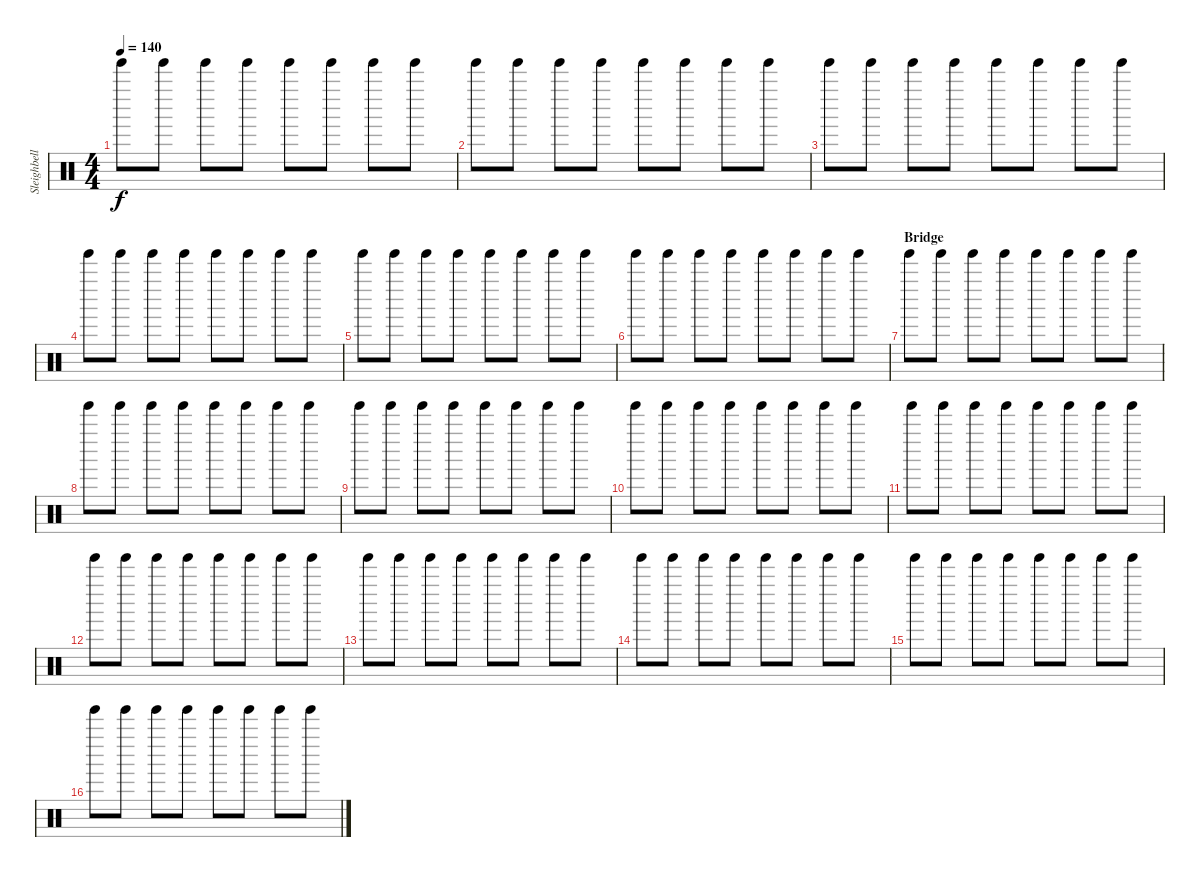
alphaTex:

\track ("Sleighbells" "Sleighbell") {instrument percussion}
\staff {score}
\articulation defaults
\ts (4 4)
\tempo 140
\clef neutral
\ks c "Tinkle Bell (hit)".8{dy f} "Tinkle Bell (hit)".8 "Tinkle Bell (hit)".8 "Tinkle Bell (hit)".8 "Tinkle Bell (hit)".8 "Tinkle Bell (hit)".8 "Tinkle Bell (hit)".8 "Tinkle Bell (hit)".8
|
"Tinkle Bell (hit)".8 "Tinkle Bell (hit)".8 "Tinkle Bell (hit)".8 "Tinkle Bell (hit)".8 "Tinkle Bell (hit)".8 "Tinkle Bell (hit)".8 "Tinkle Bell (hit)".8 "Tinkle Bell (hit)".8 |
"Tinkle Bell (hit)".8 "Tinkle Bell (hit)".8 "Tinkle Bell (hit)".8 "Tinkle Bell (hit)".8 "Tinkle Bell (hit)".8 "Tinkle Bell (hit)".8 "Tinkle Bell (hit)".8 "Tinkle Bell (hit)".8 |
"Tinkle Bell (hit)".8 "Tinkle Bell (hit)".8 "Tinkle Bell (hit)".8 "Tinkle Bell (hit)".8 "Tinkle Bell (hit)".8 "Tinkle Bell (hit)".8 "Tinkle Bell (hit)".8 "Tinkle Bell (hit)".8 |
"Tinkle Bell (hit)".8 "Tinkle Bell (hit)".8 "Tinkle Bell (hit)".8 "Tinkle Bell (hit)".8 "Tinkle Bell (hit)".8 "Tinkle Bell (hit)".8 "Tinkle Bell (hit)".8 "Tinkle Bell (hit)".8 |
"Tinkle Bell (hit)".8 "Tinkle Bell (hit)".8 "Tinkle Bell (hit)".8 "Tinkle Bell (hit)".8 "Tinkle Bell (hit)".8 "Tinkle Bell (hit)".8 "Tinkle Bell (hit)".8 "Tinkle Bell (hit)".8 |
\section ("" "Bridge")
"Tinkle Bell (hit)".8 "Tinkle Bell (hit)".8 "Tinkle Bell (hit)".8 "Tinkle Bell (hit)".8 "Tinkle Bell (hit)".8 "Tinkle Bell (hit)".8 "Tinkle Bell (hit)".8 "Tinkle Bell (hit)".8 |
"Tinkle Bell (hit)".8 "Tinkle Bell (hit)".8 "Tinkle Bell (hit)".8 "Tinkle Bell (hit)".8 "Tinkle Bell (hit)".8 "Tinkle Bell (hit)".8 "Tinkle Bell (hit)".8 "Tinkle Bell (hit)".8 |
"Tinkle Bell (hit)".8 "Tinkle Bell (hit)".8 "Tinkle Bell (hit)".8 "Tinkle Bell (hit)".8 "Tinkle Bell (hit)".8 "Tinkle Bell (hit)".8 "Tinkle Bell (hit)".8 "Tinkle Bell (hit)".8 |
"Tinkle Bell (hit)".8 "Tinkle Bell (hit)".8 "Tinkle Bell (hit)".8 "Tinkle Bell (hit)".8 "Tinkle Bell (hit)".8 "Tinkle Bell (hit)".8 "Tinkle Bell (hit)".8 "Tinkle Bell (hit)".8 |
"Tinkle Bell (hit)".8 "Tinkle Bell (hit)".8 "Tinkle Bell (hit)".8 "Tinkle Bell (hit)".8 "Tinkle Bell (hit)".8 "Tinkle Bell (hit)".8 "Tinkle Bell (hit)".8 "Tinkle Bell (hit)".8 |
"Tinkle Bell (hit)".8 "Tinkle Bell (hit)".8 "Tinkle Bell (hit)".8 "Tinkle Bell (hit)".8 "Tinkle Bell (hit)".8 "Tinkle Bell (hit)".8 "Tinkle Bell (hit)".8 "Tinkle Bell (hit)".8 |
"Tinkle Bell (hit)".8 "Tinkle Bell (hit)".8 "Tinkle Bell (hit)".8 "Tinkle Bell (hit)".8 "Tinkle Bell (hit)".8 "Tinkle Bell (hit)".8 "Tinkle Bell (hit)".8 "Tinkle Bell (hit)".8 |
"Tinkle Bell (hit)".8 "Tinkle Bell (hit)".8 "Tinkle Bell (hit)".8 "Tinkle Bell (hit)".8 "Tinkle Bell (hit)".8 "Tinkle Bell (hit)".8 "Tinkle Bell (hit)".8 "Tinkle Bell (hit)".8 |
"Tinkle Bell (hit)".8 "Tinkle Bell (hit)".8 "Tinkle Bell (hit)".8 "Tinkle Bell (hit)".8 "Tinkle Bell (hit)".8 "Tinkle Bell (hit)".8 "Tinkle Bell (hit)".8 "Tinkle Bell (hit)".8 |
"Tinkle Bell (hit)".8 "Tinkle Bell (hit)".8 "Tinkle Bell (hit)".8 "Tinkle Bell (hit)".8 "Tinkle Bell (hit)".8 "Tinkle Bell (hit)".8 "Tinkle Bell (hit)".8 "Tinkle Bell (hit)".8
